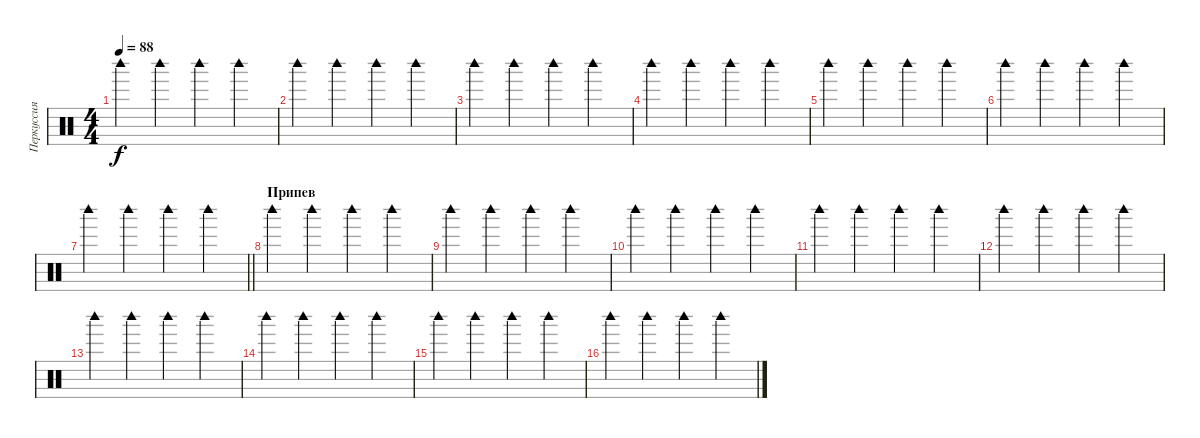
\track ("Перкуссия 2" "Перкуссия ") {instrument percussion}
\staff {score}
\articulation defaults
\ts (4 4)
\tempo 88
\clef neutral
\ks c "Woodblock high (hit)".4{dy f} "Woodblock high (hit)".4 "Woodblock high (hit)".4 "Woodblock high (hit)".4
|
"Woodblock high (hit)".4 "Woodblock high (hit)".4 "Woodblock high (hit)".4 "Woodblock high (hit)".4 |
"Woodblock high (hit)".4 "Woodblock high (hit)".4 "Woodblock high (hit)".4 "Woodblock high (hit)".4 |
"Woodblock high (hit)".4 "Woodblock high (hit)".4 "Woodblock high (hit)".4 "Woodblock high (hit)".4 |
"Woodblock high (hit)".4 "Woodblock high (hit)".4 "Woodblock high (hit)".4 "Woodblock high (hit)".4 |
"Woodblock high (hit)".4 "Woodblock high (hit)".4 "Woodblock high (hit)".4 "Woodblock high (hit)".4 |
\barLineRight lightlight "Woodblock high (hit)".4 "Woodblock high (hit)".4 "Woodblock high (hit)".4 "Woodblock high (hit)".4
|
\section ("" "Припев")
"Woodblock high (hit)".4 "Woodblock high (hit)".4 "Woodblock high (hit)".4 "Woodblock high (hit)".4 |
"Woodblock high (hit)".4 "Woodblock high (hit)".4 "Woodblock high (hit)".4 "Woodblock high (hit)".4 |
"Woodblock high (hit)".4 "Woodblock high (hit)".4 "Woodblock high (hit)".4 "Woodblock high (hit)".4 |
"Woodblock high (hit)".4 "Woodblock high (hit)".4 "Woodblock high (hit)".4 "Woodblock high (hit)".4 |
"Woodblock high (hit)".4 "Woodblock high (hit)".4 "Woodblock high (hit)".4 "Woodblock high (hit)".4 |
"Woodblock high (hit)".4 "Woodblock high (hit)".4 "Woodblock high (hit)".4 "Woodblock high (hit)".4 |
"Woodblock high (hit)".4 "Woodblock high (hit)".4 "Woodblock high (hit)".4 "Woodblock high (hit)".4 |
"Woodblock high (hit)".4 "Woodblock high (hit)".4 "Woodblock high (hit)".4 "Woodblock high (hit)".4 |
"Woodblock high (hit)".4 "Woodblock high (hit)".4 "Woodblock high (hit)".4 "Woodblock high (hit)".4
